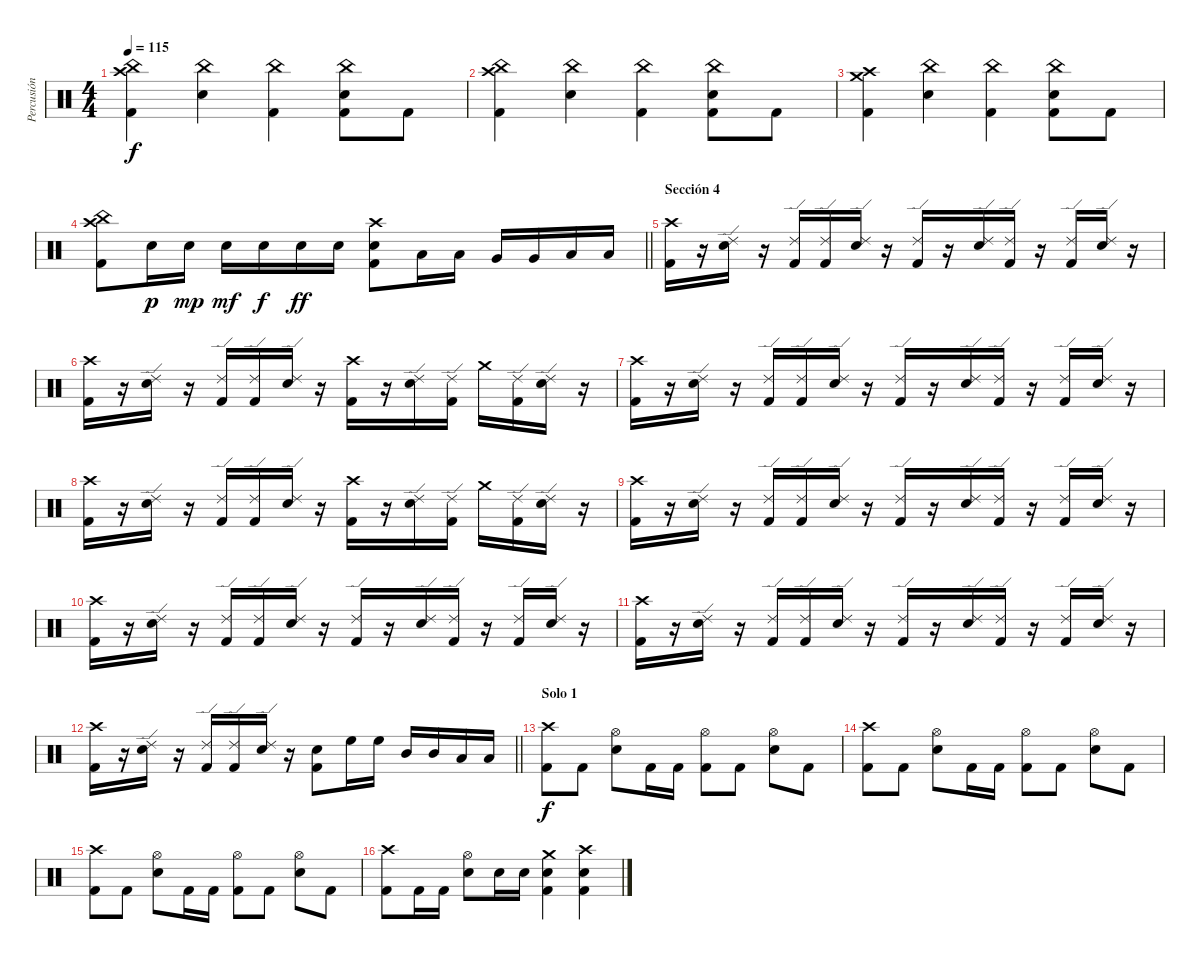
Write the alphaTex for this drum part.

\track ("Percusión" "Percusión") {instrument percussion}
\staff {score}
\articulation defaults
\ts (4 4)
\tempo 115
\clef neutral
\ks c
("China (hit)" "Crash high (hit)" "Kick (hit) 2").4{dy f} ("China (hit)" "Snare (hit) 2").4 ("China (hit)" "Kick (hit) 2").4 ("China (hit)" "Snare (hit) 2" "Kick (hit) 2").8 "Kick (hit) 2".8 |
("China (hit)" "Crash high (hit)" "Kick (hit) 2").4 ("China (hit)" "Snare (hit) 2").4 ("China (hit)" "Kick (hit) 2").4 ("China (hit)" "Snare (hit) 2" "Kick (hit) 2").8 "Kick (hit) 2".8 |
("Crash medium (hit)" "Crash high (hit)" "Kick (hit) 2").4 ("China (hit)" "Snare (hit) 2").4 ("China (hit)" "Kick (hit) 2").4 ("China (hit)" "Snare (hit) 2" "Kick (hit) 2").8 "Kick (hit) 2".8 |
\barLineRight lightlight
("China (hit)" "Crash high (hit)" "Kick (hit) 2").8 "Snare (hit) 2".16{dy p} "Snare (hit) 2".16{dy mp} "Snare (hit) 2".16{dy mf} "Snare (hit) 2".16{dy f} "Snare (hit) 2".16{dy ff} "Snare (hit) 2".16 ("Crash high (hit)" "Snare (hit) 2" "Kick (hit) 2").8 "Low Tom (hit)".16 "Low Tom (hit)".16 "Very Low Tom (hit)".16 "Very Low Tom (hit)".16 "Low Floor Tom (hit)".16 "Low Floor Tom (hit)".16 |
\section ("" "Sección 4")
("Crash high (hit)" "Kick (hit) 2").16 r.16 ("Ride (edge) 2" "Snare (hit) 2").16 r.16 ("Ride (edge) 2" "Kick (hit) 2").16 ("Ride (edge) 2" "Kick (hit) 2").16 ("Ride (edge) 2" "Snare (hit) 2").16 r.16 ("Ride (edge) 2" "Kick (hit) 2").16 r.16 ("Ride (edge) 2" "Snare (hit) 2").16 ("Ride (edge) 2" "Kick (hit) 2").16 r.16 ("Ride (edge) 2" "Kick (hit) 2").16 ("Ride (edge) 2" "Snare (hit) 2").16 r.16 |
("Crash high (hit)" "Kick (hit) 2").16 r.16 ("Ride (edge) 2" "Snare (hit) 2").16 r.16 ("Ride (edge) 2" "Kick (hit) 2").16 ("Ride (edge) 2" "Kick (hit) 2").16 ("Ride (edge) 2" "Snare (hit) 2").16 r.16 ("Crash high (hit)" "Kick (hit) 2").16 r.16 ("Ride (edge) 2" "Snare (hit) 2").16 ("Ride (edge) 2" "Kick (hit) 2").16 "Crash medium (hit)".16 ("Ride (edge) 2" "Kick (hit) 2").16 ("Ride (edge) 2" "Snare (hit) 2").16 r.16 |
("Crash high (hit)" "Kick (hit) 2").16 r.16 ("Ride (edge) 2" "Snare (hit) 2").16 r.16 ("Ride (edge) 2" "Kick (hit) 2").16 ("Ride (edge) 2" "Kick (hit) 2").16 ("Ride (edge) 2" "Snare (hit) 2").16 r.16 ("Ride (edge) 2" "Kick (hit) 2").16 r.16 ("Ride (edge) 2" "Snare (hit) 2").16 ("Ride (edge) 2" "Kick (hit) 2").16 r.16 ("Ride (edge) 2" "Kick (hit) 2").16 ("Ride (edge) 2" "Snare (hit) 2").16 r.16 |
("Crash high (hit)" "Kick (hit) 2").16 r.16 ("Ride (edge) 2" "Snare (hit) 2").16 r.16 ("Ride (edge) 2" "Kick (hit) 2").16 ("Ride (edge) 2" "Kick (hit) 2").16 ("Ride (edge) 2" "Snare (hit) 2").16 r.16 ("Crash high (hit)" "Kick (hit) 2").16 r.16 ("Ride (edge) 2" "Snare (hit) 2").16 ("Ride (edge) 2" "Kick (hit) 2").16 "Crash medium (hit)".16 ("Ride (edge) 2" "Kick (hit) 2").16 ("Ride (edge) 2" "Snare (hit) 2").16 r.16 |
("Crash high (hit)" "Kick (hit) 2").16 r.16 ("Ride (edge) 2" "Snare (hit) 2").16 r.16 ("Ride (edge) 2" "Kick (hit) 2").16 ("Ride (edge) 2" "Kick (hit) 2").16 ("Ride (edge) 2" "Snare (hit) 2").16 r.16 ("Ride (edge) 2" "Kick (hit) 2").16 r.16 ("Ride (edge) 2" "Snare (hit) 2").16 ("Ride (edge) 2" "Kick (hit) 2").16 r.16 ("Ride (edge) 2" "Kick (hit) 2").16 ("Ride (edge) 2" "Snare (hit) 2").16 r.16 |
("Crash high (hit)" "Kick (hit) 2").16 r.16 ("Ride (edge) 2" "Snare (hit) 2").16 r.16 ("Ride (edge) 2" "Kick (hit) 2").16 ("Ride (edge) 2" "Kick (hit) 2").16 ("Ride (edge) 2" "Snare (hit) 2").16 r.16 ("Ride (edge) 2" "Kick (hit) 2").16 r.16 ("Ride (edge) 2" "Snare (hit) 2").16 ("Ride (edge) 2" "Kick (hit) 2").16 r.16 ("Ride (edge) 2" "Kick (hit) 2").16 ("Ride (edge) 2" "Snare (hit) 2").16 r.16 |
("Crash high (hit)" "Kick (hit) 2").16 r.16 ("Ride (edge) 2" "Snare (hit) 2").16 r.16 ("Ride (edge) 2" "Kick (hit) 2").16 ("Ride (edge) 2" "Kick (hit) 2").16 ("Ride (edge) 2" "Snare (hit) 2").16 r.16 ("Ride (edge) 2" "Kick (hit) 2").16 r.16 ("Ride (edge) 2" "Snare (hit) 2").16 ("Ride (edge) 2" "Kick (hit) 2").16 r.16 ("Ride (edge) 2" "Kick (hit) 2").16 ("Ride (edge) 2" "Snare (hit) 2").16 r.16 |
\barLineRight lightlight
("Crash high (hit)" "Kick (hit) 2").16 r.16 ("Ride (edge) 2" "Snare (hit) 2").16 r.16 ("Ride (edge) 2" "Kick (hit) 2").16 ("Ride (edge) 2" "Kick (hit) 2").16 ("Ride (edge) 2" "Snare (hit) 2").16 r.16 ("Snare (hit) 2" "Kick (hit) 2").8 "High Floor Tom (hit)".16 "High Floor Tom (hit)".16 "Mid Tom (hit)".16 "Mid Tom (hit)".16 "Low Tom (hit)".16 "Low Tom (hit)".16 |
\section ("" "Solo 1")
("Crash high (hit)" "Kick (hit) 2").8{dy f} "Kick (hit) 2".8 ("Hi-Hat (open)" "Snare (hit) 2").8 "Kick (hit) 2".16 "Kick (hit) 2".16 ("Hi-Hat (open)" "Kick (hit) 2").8 "Kick (hit) 2".8 ("Hi-Hat (open)" "Snare (hit) 2").8 "Kick (hit) 2".8 |
("Crash high (hit)" "Kick (hit) 2").8 "Kick (hit) 2".8 ("Hi-Hat (open)" "Snare (hit) 2").8 "Kick (hit) 2".16 "Kick (hit) 2".16 ("Hi-Hat (open)" "Kick (hit) 2").8 "Kick (hit) 2".8 ("Hi-Hat (open)" "Snare (hit) 2").8 "Kick (hit) 2".8 |
("Crash high (hit)" "Kick (hit) 2").8 "Kick (hit) 2".8 ("Hi-Hat (open)" "Snare (hit) 2").8 "Kick (hit) 2".16 "Kick (hit) 2".16 ("Hi-Hat (open)" "Kick (hit) 2").8 "Kick (hit) 2".8 ("Hi-Hat (open)" "Snare (hit) 2").8 "Kick (hit) 2".8 |
("Crash high (hit)" "Kick (hit) 2").8 "Kick (hit) 2".16 "Kick (hit) 2".16 ("Hi-Hat (open)" "Snare (hit) 2").8 "Snare (hit) 2".16 "Snare (hit) 2".16 ("Crash medium (hit)" "Snare (hit) 2" "Kick (hit) 2").4 ("Crash high (hit)" "Snare (hit) 2" "Kick (hit) 2").4
